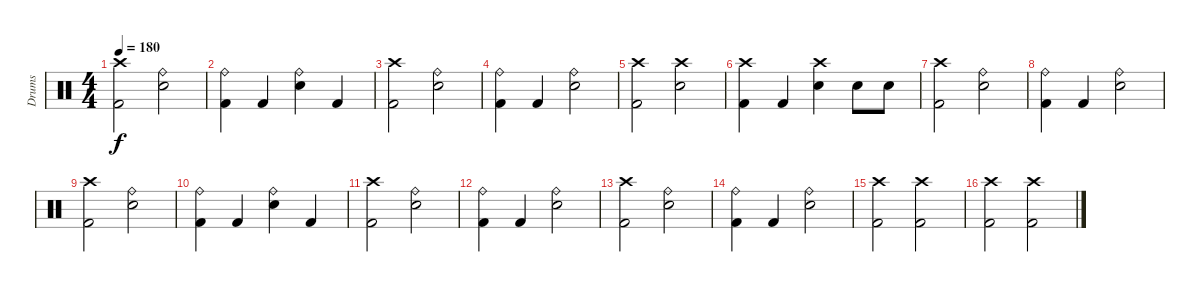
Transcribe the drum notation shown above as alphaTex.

\track ("Drums" "Drums") {instrument percussion}
\staff {score}
\articulation defaults
\ts (4 4)
\tempo 180
\clef neutral
\ks c
("Crash high (hit)" "Kick (hit) 2").2{dy f} ("Ride (bell)" "Snare (hit) 2").2 |
("Ride (bell)" "Kick (hit) 2").4 "Kick (hit) 2".4 ("Ride (bell)" "Snare (hit) 2").4 "Kick (hit) 2".4 |
("Crash high (hit)" "Kick (hit) 2").2 ("Ride (bell)" "Snare (hit) 2").2 |
("Ride (bell)" "Kick (hit) 2").4 "Kick (hit) 2".4 ("Ride (bell)" "Snare (hit) 2").2 |
("Crash high (hit)" "Kick (hit) 2").2 ("Crash high (hit)" "Snare (hit) 2").2 |
("Crash high (hit)" "Kick (hit) 2").4 "Kick (hit) 2".4 ("Crash high (hit)" "Snare (hit) 2").4 "Snare (hit) 2".8 "Snare (hit) 2".8 |
("Crash high (hit)" "Kick (hit) 2").2 ("Ride (bell)" "Snare (hit) 2").2 |
("Ride (bell)" "Kick (hit) 2").4 "Kick (hit) 2".4 ("Ride (bell)" "Snare (hit) 2").2 |
("Crash high (hit)" "Kick (hit) 2").2 ("Ride (bell)" "Snare (hit) 2").2 |
("Ride (bell)" "Kick (hit) 2").4 "Kick (hit) 2".4 ("Ride (bell)" "Snare (hit) 2").4 "Kick (hit) 2".4 |
("Crash high (hit)" "Kick (hit) 2").2 ("Ride (bell)" "Snare (hit) 2").2 |
("Ride (bell)" "Kick (hit) 2").4 "Kick (hit) 2".4 ("Ride (bell)" "Snare (hit) 2").2 |
("Crash high (hit)" "Kick (hit) 2").2 ("Ride (bell)" "Snare (hit) 2").2 |
("Ride (bell)" "Kick (hit) 2").4 "Kick (hit) 2".4 ("Ride (bell)" "Snare (hit) 2").2 |
("Crash high (hit)" "Kick (hit) 2").2 ("Crash high (hit)" "Kick (hit) 2").2 |
("Crash high (hit)" "Kick (hit) 2").2 ("Crash high (hit)" "Kick (hit) 2").2
